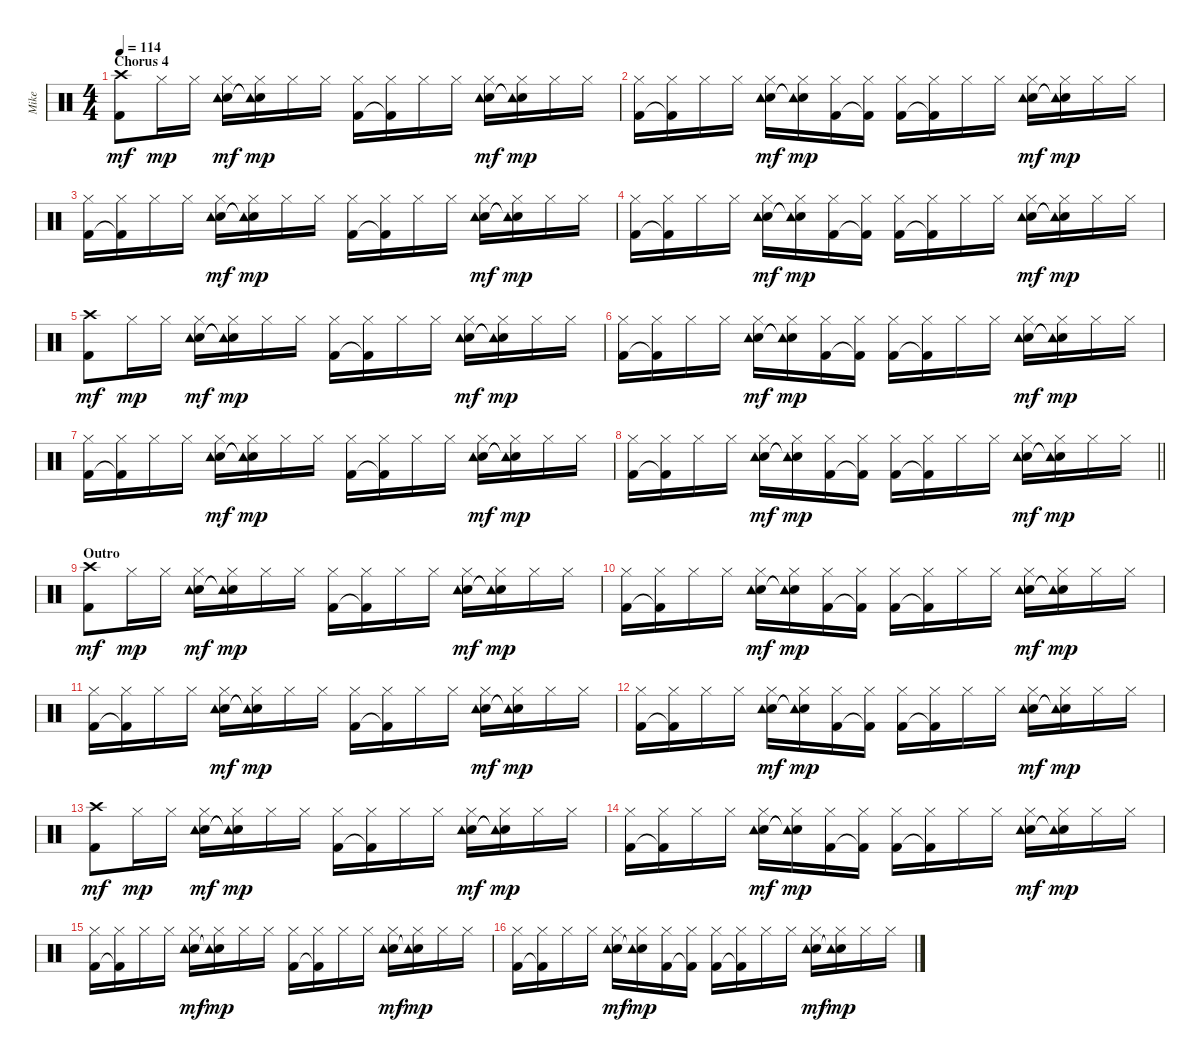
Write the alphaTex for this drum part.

\track ("Mike" "Mike") {instrument percussion}
\staff {score}
\articulation defaults
\ts (4 4)
\section ("" "Chorus 4")
\tempo 114
\clef neutral
\ks c
("Crash high (hit)" "Kick (hit) 2").8{dy mf} "Hi-Hat (closed)".16{dy mp} "Hi-Hat (closed)".16 ("Hi-Hat (closed)" "Electric Snare (hit)" "Tambourine (hit)").16{dy mf} ("Hi-Hat (closed)" "Electric Snare (hit)"{t} "Tambourine (hit)"{t}).16{dy mp} "Hi-Hat (closed)".16 "Hi-Hat (closed)".16 ("Hi-Hat (closed)" "Kick (hit) 2").16 ("Hi-Hat (closed)" "Kick (hit) 2"{t}).16 "Hi-Hat (closed)".16 "Hi-Hat (closed)".16 ("Hi-Hat (closed)" "Electric Snare (hit)" "Tambourine (hit)").16{dy mf} ("Hi-Hat (closed)" "Electric Snare (hit)"{t} "Tambourine (hit)"{t}).16{dy mp} "Hi-Hat (closed)".16 "Hi-Hat (closed)".16 |
("Hi-Hat (closed)" "Kick (hit) 2").16 ("Hi-Hat (closed)" "Kick (hit) 2"{t}).16 "Hi-Hat (closed)".16 "Hi-Hat (closed)".16 ("Hi-Hat (closed)" "Electric Snare (hit)" "Tambourine (hit)").16{dy mf} ("Hi-Hat (closed)" "Electric Snare (hit)"{t} "Tambourine (hit)"{t}).16{dy mp} ("Hi-Hat (closed)" "Kick (hit) 2").16 ("Hi-Hat (closed)" "Kick (hit) 2"{t}).16 ("Hi-Hat (closed)" "Kick (hit) 2").16 ("Hi-Hat (closed)" "Kick (hit) 2"{t}).16 "Hi-Hat (closed)".16 "Hi-Hat (closed)".16 ("Hi-Hat (closed)" "Electric Snare (hit)" "Tambourine (hit)").16{dy mf} ("Hi-Hat (closed)" "Electric Snare (hit)"{t} "Tambourine (hit)"{t}).16{dy mp} "Hi-Hat (closed)".16 "Hi-Hat (closed)".16 |
("Hi-Hat (closed)" "Kick (hit) 2").16 ("Hi-Hat (closed)" "Kick (hit) 2"{t}).16 "Hi-Hat (closed)".16 "Hi-Hat (closed)".16 ("Hi-Hat (closed)" "Electric Snare (hit)" "Tambourine (hit)").16{dy mf} ("Hi-Hat (closed)" "Electric Snare (hit)"{t} "Tambourine (hit)"{t}).16{dy mp} "Hi-Hat (closed)".16 "Hi-Hat (closed)".16 ("Hi-Hat (closed)" "Kick (hit) 2").16 ("Hi-Hat (closed)" "Kick (hit) 2"{t}).16 "Hi-Hat (closed)".16 "Hi-Hat (closed)".16 ("Hi-Hat (closed)" "Electric Snare (hit)" "Tambourine (hit)").16{dy mf} ("Hi-Hat (closed)" "Electric Snare (hit)"{t} "Tambourine (hit)"{t}).16{dy mp} "Hi-Hat (closed)".16 "Hi-Hat (closed)".16 |
("Hi-Hat (closed)" "Kick (hit) 2").16 ("Hi-Hat (closed)" "Kick (hit) 2"{t}).16 "Hi-Hat (closed)".16 "Hi-Hat (closed)".16 ("Hi-Hat (closed)" "Electric Snare (hit)" "Tambourine (hit)").16{dy mf} ("Hi-Hat (closed)" "Electric Snare (hit)"{t} "Tambourine (hit)"{t}).16{dy mp} ("Hi-Hat (closed)" "Kick (hit) 2").16 ("Hi-Hat (closed)" "Kick (hit) 2"{t}).16 ("Hi-Hat (closed)" "Kick (hit) 2").16 ("Hi-Hat (closed)" "Kick (hit) 2"{t}).16 "Hi-Hat (closed)".16 "Hi-Hat (closed)".16 ("Hi-Hat (closed)" "Electric Snare (hit)" "Tambourine (hit)").16{dy mf} ("Hi-Hat (closed)" "Electric Snare (hit)"{t} "Tambourine (hit)"{t}).16{dy mp} "Hi-Hat (closed)".16 "Hi-Hat (closed)".16 |
("Crash high (hit)" "Kick (hit) 2").8{dy mf} "Hi-Hat (closed)".16{dy mp} "Hi-Hat (closed)".16 ("Hi-Hat (closed)" "Electric Snare (hit)" "Tambourine (hit)").16{dy mf} ("Hi-Hat (closed)" "Electric Snare (hit)"{t} "Tambourine (hit)"{t}).16{dy mp} "Hi-Hat (closed)".16 "Hi-Hat (closed)".16 ("Hi-Hat (closed)" "Kick (hit) 2").16 ("Hi-Hat (closed)" "Kick (hit) 2"{t}).16 "Hi-Hat (closed)".16 "Hi-Hat (closed)".16 ("Hi-Hat (closed)" "Electric Snare (hit)" "Tambourine (hit)").16{dy mf} ("Hi-Hat (closed)" "Electric Snare (hit)"{t} "Tambourine (hit)"{t}).16{dy mp} "Hi-Hat (closed)".16 "Hi-Hat (closed)".16 |
("Hi-Hat (closed)" "Kick (hit) 2").16 ("Hi-Hat (closed)" "Kick (hit) 2"{t}).16 "Hi-Hat (closed)".16 "Hi-Hat (closed)".16 ("Hi-Hat (closed)" "Electric Snare (hit)" "Tambourine (hit)").16{dy mf} ("Hi-Hat (closed)" "Electric Snare (hit)"{t} "Tambourine (hit)"{t}).16{dy mp} ("Hi-Hat (closed)" "Kick (hit) 2").16 ("Hi-Hat (closed)" "Kick (hit) 2"{t}).16 ("Hi-Hat (closed)" "Kick (hit) 2").16 ("Hi-Hat (closed)" "Kick (hit) 2"{t}).16 "Hi-Hat (closed)".16 "Hi-Hat (closed)".16 ("Hi-Hat (closed)" "Electric Snare (hit)" "Tambourine (hit)").16{dy mf} ("Hi-Hat (closed)" "Electric Snare (hit)"{t} "Tambourine (hit)"{t}).16{dy mp} "Hi-Hat (closed)".16 "Hi-Hat (closed)".16 |
("Hi-Hat (closed)" "Kick (hit) 2").16 ("Hi-Hat (closed)" "Kick (hit) 2"{t}).16 "Hi-Hat (closed)".16 "Hi-Hat (closed)".16 ("Hi-Hat (closed)" "Electric Snare (hit)" "Tambourine (hit)").16{dy mf} ("Hi-Hat (closed)" "Electric Snare (hit)"{t} "Tambourine (hit)"{t}).16{dy mp} "Hi-Hat (closed)".16 "Hi-Hat (closed)".16 ("Hi-Hat (closed)" "Kick (hit) 2").16 ("Hi-Hat (closed)" "Kick (hit) 2"{t}).16 "Hi-Hat (closed)".16 "Hi-Hat (closed)".16 ("Hi-Hat (closed)" "Electric Snare (hit)" "Tambourine (hit)").16{dy mf} ("Hi-Hat (closed)" "Electric Snare (hit)"{t} "Tambourine (hit)"{t}).16{dy mp} "Hi-Hat (closed)".16 "Hi-Hat (closed)".16 |
\barLineRight lightlight
("Hi-Hat (closed)" "Kick (hit) 2").16 ("Hi-Hat (closed)" "Kick (hit) 2"{t}).16 "Hi-Hat (closed)".16 "Hi-Hat (closed)".16 ("Hi-Hat (closed)" "Electric Snare (hit)" "Tambourine (hit)").16{dy mf} ("Hi-Hat (closed)" "Electric Snare (hit)"{t} "Tambourine (hit)"{t}).16{dy mp} ("Hi-Hat (closed)" "Kick (hit) 2").16 ("Hi-Hat (closed)" "Kick (hit) 2"{t}).16 ("Hi-Hat (closed)" "Kick (hit) 2").16 ("Hi-Hat (closed)" "Kick (hit) 2"{t}).16 "Hi-Hat (closed)".16 "Hi-Hat (closed)".16 ("Hi-Hat (closed)" "Electric Snare (hit)" "Tambourine (hit)").16{dy mf} ("Hi-Hat (closed)" "Electric Snare (hit)"{t} "Tambourine (hit)"{t}).16{dy mp} "Hi-Hat (closed)".16 "Hi-Hat (closed)".16 |
\section ("" "Outro")
("Crash high (hit)" "Kick (hit) 2").8{dy mf} "Hi-Hat (closed)".16{dy mp} "Hi-Hat (closed)".16 ("Hi-Hat (closed)" "Electric Snare (hit)" "Tambourine (hit)").16{dy mf} ("Hi-Hat (closed)" "Electric Snare (hit)"{t} "Tambourine (hit)"{t}).16{dy mp} "Hi-Hat (closed)".16 "Hi-Hat (closed)".16 ("Hi-Hat (closed)" "Kick (hit) 2").16 ("Hi-Hat (closed)" "Kick (hit) 2"{t}).16 "Hi-Hat (closed)".16 "Hi-Hat (closed)".16 ("Hi-Hat (closed)" "Electric Snare (hit)" "Tambourine (hit)").16{dy mf} ("Hi-Hat (closed)" "Electric Snare (hit)"{t} "Tambourine (hit)"{t}).16{dy mp} "Hi-Hat (closed)".16 "Hi-Hat (closed)".16 |
("Hi-Hat (closed)" "Kick (hit) 2").16 ("Hi-Hat (closed)" "Kick (hit) 2"{t}).16 "Hi-Hat (closed)".16 "Hi-Hat (closed)".16 ("Hi-Hat (closed)" "Electric Snare (hit)" "Tambourine (hit)").16{dy mf} ("Hi-Hat (closed)" "Electric Snare (hit)"{t} "Tambourine (hit)"{t}).16{dy mp} ("Hi-Hat (closed)" "Kick (hit) 2").16 ("Hi-Hat (closed)" "Kick (hit) 2"{t}).16 ("Hi-Hat (closed)" "Kick (hit) 2").16 ("Hi-Hat (closed)" "Kick (hit) 2"{t}).16 "Hi-Hat (closed)".16 "Hi-Hat (closed)".16 ("Hi-Hat (closed)" "Electric Snare (hit)" "Tambourine (hit)").16{dy mf} ("Hi-Hat (closed)" "Electric Snare (hit)"{t} "Tambourine (hit)"{t}).16{dy mp} "Hi-Hat (closed)".16 "Hi-Hat (closed)".16 |
("Hi-Hat (closed)" "Kick (hit) 2").16 ("Hi-Hat (closed)" "Kick (hit) 2"{t}).16 "Hi-Hat (closed)".16 "Hi-Hat (closed)".16 ("Hi-Hat (closed)" "Electric Snare (hit)" "Tambourine (hit)").16{dy mf} ("Hi-Hat (closed)" "Electric Snare (hit)"{t} "Tambourine (hit)"{t}).16{dy mp} "Hi-Hat (closed)".16 "Hi-Hat (closed)".16 ("Hi-Hat (closed)" "Kick (hit) 2").16 ("Hi-Hat (closed)" "Kick (hit) 2"{t}).16 "Hi-Hat (closed)".16 "Hi-Hat (closed)".16 ("Hi-Hat (closed)" "Electric Snare (hit)" "Tambourine (hit)").16{dy mf} ("Hi-Hat (closed)" "Electric Snare (hit)"{t} "Tambourine (hit)"{t}).16{dy mp} "Hi-Hat (closed)".16 "Hi-Hat (closed)".16 |
("Hi-Hat (closed)" "Kick (hit) 2").16 ("Hi-Hat (closed)" "Kick (hit) 2"{t}).16 "Hi-Hat (closed)".16 "Hi-Hat (closed)".16 ("Hi-Hat (closed)" "Electric Snare (hit)" "Tambourine (hit)").16{dy mf} ("Hi-Hat (closed)" "Electric Snare (hit)"{t} "Tambourine (hit)"{t}).16{dy mp} ("Hi-Hat (closed)" "Kick (hit) 2").16 ("Hi-Hat (closed)" "Kick (hit) 2"{t}).16 ("Hi-Hat (closed)" "Kick (hit) 2").16 ("Hi-Hat (closed)" "Kick (hit) 2"{t}).16 "Hi-Hat (closed)".16 "Hi-Hat (closed)".16 ("Hi-Hat (closed)" "Electric Snare (hit)" "Tambourine (hit)").16{dy mf} ("Hi-Hat (closed)" "Electric Snare (hit)"{t} "Tambourine (hit)"{t}).16{dy mp} "Hi-Hat (closed)".16 "Hi-Hat (closed)".16 |
("Crash high (hit)" "Kick (hit) 2").8{dy mf} "Hi-Hat (closed)".16{dy mp} "Hi-Hat (closed)".16 ("Hi-Hat (closed)" "Electric Snare (hit)" "Tambourine (hit)").16{dy mf} ("Hi-Hat (closed)" "Electric Snare (hit)"{t} "Tambourine (hit)"{t}).16{dy mp} "Hi-Hat (closed)".16 "Hi-Hat (closed)".16 ("Hi-Hat (closed)" "Kick (hit) 2").16 ("Hi-Hat (closed)" "Kick (hit) 2"{t}).16 "Hi-Hat (closed)".16 "Hi-Hat (closed)".16 ("Hi-Hat (closed)" "Electric Snare (hit)" "Tambourine (hit)").16{dy mf} ("Hi-Hat (closed)" "Electric Snare (hit)"{t} "Tambourine (hit)"{t}).16{dy mp} "Hi-Hat (closed)".16 "Hi-Hat (closed)".16 |
("Hi-Hat (closed)" "Kick (hit) 2").16 ("Hi-Hat (closed)" "Kick (hit) 2"{t}).16 "Hi-Hat (closed)".16 "Hi-Hat (closed)".16 ("Hi-Hat (closed)" "Electric Snare (hit)" "Tambourine (hit)").16{dy mf} ("Hi-Hat (closed)" "Electric Snare (hit)"{t} "Tambourine (hit)"{t}).16{dy mp} ("Hi-Hat (closed)" "Kick (hit) 2").16 ("Hi-Hat (closed)" "Kick (hit) 2"{t}).16 ("Hi-Hat (closed)" "Kick (hit) 2").16 ("Hi-Hat (closed)" "Kick (hit) 2"{t}).16 "Hi-Hat (closed)".16 "Hi-Hat (closed)".16 ("Hi-Hat (closed)" "Electric Snare (hit)" "Tambourine (hit)").16{dy mf} ("Hi-Hat (closed)" "Electric Snare (hit)"{t} "Tambourine (hit)"{t}).16{dy mp} "Hi-Hat (closed)".16 "Hi-Hat (closed)".16 |
("Hi-Hat (closed)" "Kick (hit) 2").16 ("Hi-Hat (closed)" "Kick (hit) 2"{t}).16 "Hi-Hat (closed)".16 "Hi-Hat (closed)".16 ("Hi-Hat (closed)" "Electric Snare (hit)" "Tambourine (hit)").16{dy mf} ("Hi-Hat (closed)" "Electric Snare (hit)"{t} "Tambourine (hit)"{t}).16{dy mp} "Hi-Hat (closed)".16 "Hi-Hat (closed)".16 ("Hi-Hat (closed)" "Kick (hit) 2").16 ("Hi-Hat (closed)" "Kick (hit) 2"{t}).16 "Hi-Hat (closed)".16 "Hi-Hat (closed)".16 ("Hi-Hat (closed)" "Electric Snare (hit)" "Tambourine (hit)").16{dy mf} ("Hi-Hat (closed)" "Electric Snare (hit)"{t} "Tambourine (hit)"{t}).16{dy mp} "Hi-Hat (closed)".16 "Hi-Hat (closed)".16 |
("Hi-Hat (closed)" "Kick (hit) 2").16 ("Hi-Hat (closed)" "Kick (hit) 2"{t}).16 "Hi-Hat (closed)".16 "Hi-Hat (closed)".16 ("Hi-Hat (closed)" "Electric Snare (hit)" "Tambourine (hit)").16{dy mf} ("Hi-Hat (closed)" "Electric Snare (hit)"{t} "Tambourine (hit)"{t}).16{dy mp} ("Hi-Hat (closed)" "Kick (hit) 2").16 ("Hi-Hat (closed)" "Kick (hit) 2"{t}).16 ("Hi-Hat (closed)" "Kick (hit) 2").16 ("Hi-Hat (closed)" "Kick (hit) 2"{t}).16 "Hi-Hat (closed)".16 "Hi-Hat (closed)".16 ("Hi-Hat (closed)" "Electric Snare (hit)" "Tambourine (hit)").16{dy mf} ("Hi-Hat (closed)" "Electric Snare (hit)"{t} "Tambourine (hit)"{t}).16{dy mp} "Hi-Hat (closed)".16 "Hi-Hat (closed)".16
